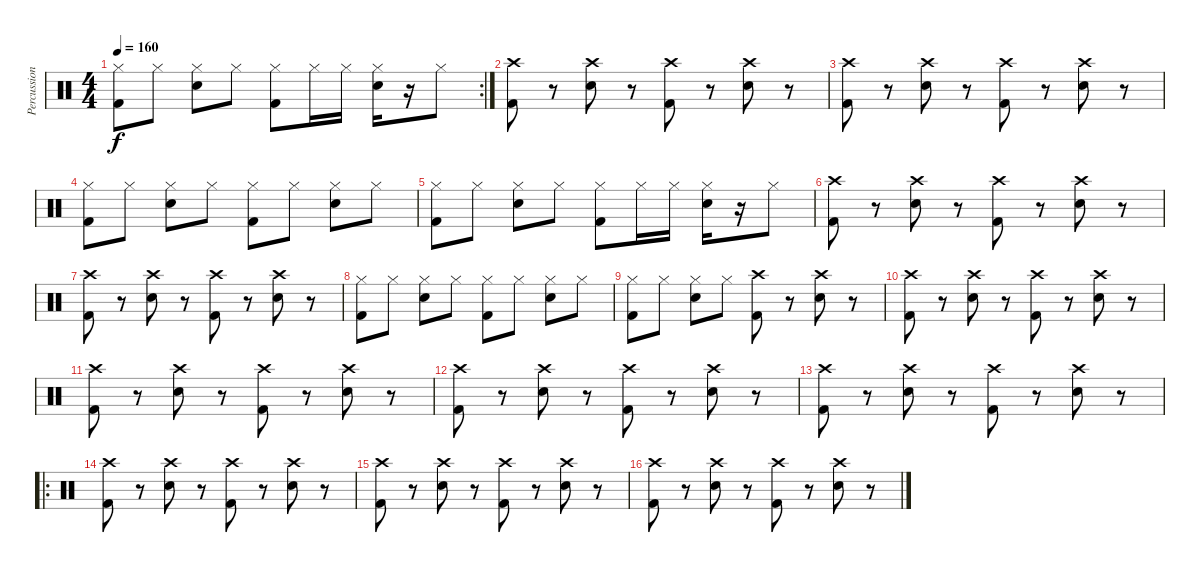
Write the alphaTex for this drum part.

\track ("Percussions" "Percussion") {instrument percussion}
\staff {score}
\articulation defaults
\rc 2
\ts (4 4)
\tempo 160
\clef neutral
\ks c
("Hi-Hat (closed)" "Kick (hit) 2").8{dy f} "Hi-Hat (closed)".8 ("Hi-Hat (closed)" "Electric Snare (hit)").8 "Hi-Hat (closed)".8 ("Hi-Hat (closed)" "Kick (hit) 2").8 "Hi-Hat (closed)".16 "Hi-Hat (closed)".16 ("Hi-Hat (closed)" "Electric Snare (hit)").16 r.16 "Hi-Hat (closed)".8 |
("Crash high (hit)" "Kick (hit) 2").8 r.8 ("Crash high (hit)" "Electric Snare (hit)").8 r.8 ("Crash high (hit)" "Kick (hit) 2").8 r.8 ("Crash high (hit)" "Electric Snare (hit)").8 r.8 |
("Crash high (hit)" "Kick (hit) 2").8 r.8 ("Crash high (hit)" "Electric Snare (hit)").8 r.8 ("Crash high (hit)" "Kick (hit) 2").8 r.8 ("Crash high (hit)" "Electric Snare (hit)").8 r.8 |
("Hi-Hat (closed)" "Kick (hit) 2").8 "Hi-Hat (closed)".8 ("Hi-Hat (closed)" "Electric Snare (hit)").8 "Hi-Hat (closed)".8 ("Hi-Hat (closed)" "Kick (hit) 2").8 "Hi-Hat (closed)".8 ("Hi-Hat (closed)" "Electric Snare (hit)").8 "Hi-Hat (closed)".8 |
("Hi-Hat (closed)" "Kick (hit) 2").8 "Hi-Hat (closed)".8 ("Hi-Hat (closed)" "Electric Snare (hit)").8 "Hi-Hat (closed)".8 ("Hi-Hat (closed)" "Kick (hit) 2").8 "Hi-Hat (closed)".16 "Hi-Hat (closed)".16 ("Hi-Hat (closed)" "Electric Snare (hit)").16 r.16 "Hi-Hat (closed)".8 |
("Crash high (hit)" "Kick (hit) 2").8 r.8 ("Crash high (hit)" "Electric Snare (hit)").8 r.8 ("Crash high (hit)" "Kick (hit) 2").8 r.8 ("Crash high (hit)" "Electric Snare (hit)").8 r.8 |
("Crash high (hit)" "Kick (hit) 2").8 r.8 ("Crash high (hit)" "Electric Snare (hit)").8 r.8 ("Crash high (hit)" "Kick (hit) 2").8 r.8 ("Crash high (hit)" "Electric Snare (hit)").8 r.8 |
("Hi-Hat (closed)" "Kick (hit) 2").8 "Hi-Hat (closed)".8 ("Hi-Hat (closed)" "Electric Snare (hit)").8 "Hi-Hat (closed)".8 ("Hi-Hat (closed)" "Kick (hit) 2").8 "Hi-Hat (closed)".8 ("Hi-Hat (closed)" "Electric Snare (hit)").8 "Hi-Hat (closed)".8 |
("Hi-Hat (closed)" "Kick (hit) 2").8 "Hi-Hat (closed)".8 ("Hi-Hat (closed)" "Electric Snare (hit)").8 "Hi-Hat (closed)".8 ("Crash high (hit)" "Kick (hit) 2").8 r.8 ("Crash high (hit)" "Electric Snare (hit)").8 r.8 |
("Crash high (hit)" "Kick (hit) 2").8 r.8 ("Crash high (hit)" "Electric Snare (hit)").8 r.8 ("Crash high (hit)" "Kick (hit) 2").8 r.8 ("Crash high (hit)" "Electric Snare (hit)").8 r.8 |
("Crash high (hit)" "Kick (hit) 2").8 r.8 ("Crash high (hit)" "Electric Snare (hit)").8 r.8 ("Crash high (hit)" "Kick (hit) 2").8 r.8 ("Crash high (hit)" "Electric Snare (hit)").8 r.8 |
("Crash high (hit)" "Kick (hit) 2").8 r.8 ("Crash high (hit)" "Electric Snare (hit)").8 r.8 ("Crash high (hit)" "Kick (hit) 2").8 r.8 ("Crash high (hit)" "Electric Snare (hit)").8 r.8 |
("Crash high (hit)" "Kick (hit) 2").8 r.8 ("Crash high (hit)" "Electric Snare (hit)").8 r.8 ("Crash high (hit)" "Kick (hit) 2").8 r.8 ("Crash high (hit)" "Electric Snare (hit)").8 r.8 |
\ro
("Crash high (hit)" "Kick (hit) 2").8 r.8 ("Crash high (hit)" "Electric Snare (hit)").8 r.8 ("Crash high (hit)" "Kick (hit) 2").8 r.8 ("Crash high (hit)" "Electric Snare (hit)").8 r.8 |
("Crash high (hit)" "Kick (hit) 2").8 r.8 ("Crash high (hit)" "Electric Snare (hit)").8 r.8 ("Crash high (hit)" "Kick (hit) 2").8 r.8 ("Crash high (hit)" "Electric Snare (hit)").8 r.8 |
("Crash high (hit)" "Kick (hit) 2").8 r.8 ("Crash high (hit)" "Electric Snare (hit)").8 r.8 ("Crash high (hit)" "Kick (hit) 2").8 r.8 ("Crash high (hit)" "Electric Snare (hit)").8 r.8
